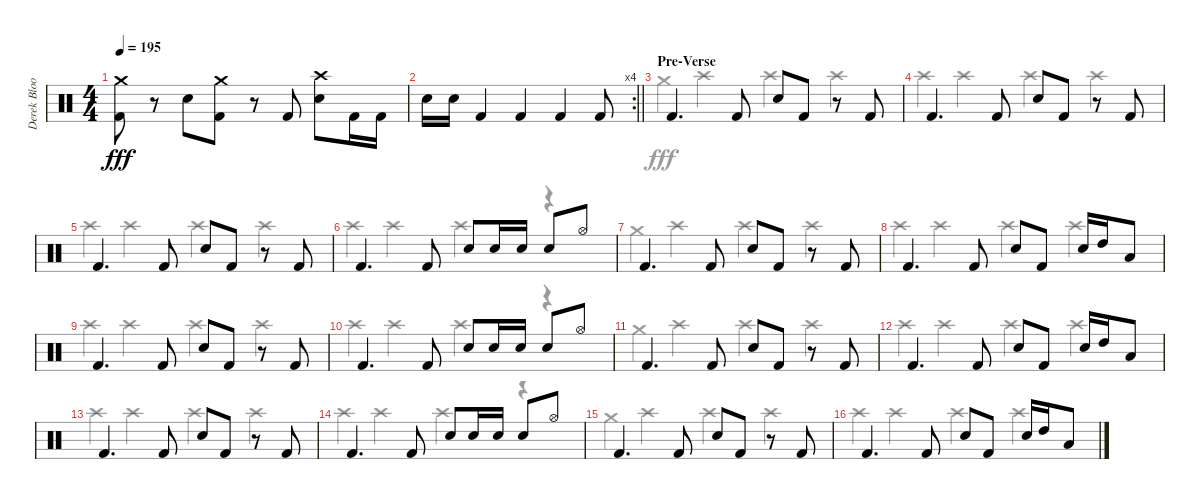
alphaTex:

\track ("Derek Bloom" "Derek Bloo") {instrument percussion}
\staff {score}
\articulation defaults
\voice
\ts (4 4)
\tempo 195
\clef neutral
\ks c
("Crash medium (hit)" "Kick (hit) 2").8{dy fff} r.8 "Electric Snare (hit)".8 ("Crash medium (hit)" "Kick (hit) 2").8 r.8 "Kick (hit) 2".8 ("Crash high (hit)" "Electric Snare (hit)").8 "Kick (hit) 2".16 "Kick (hit) 2".16 |
\rc 4
\barLineRight lightlight "Electric Snare (hit)".16 "Electric Snare (hit)".16 "Kick (hit) 2".4 "Kick (hit) 2".4 "Kick (hit) 2".4 "Kick (hit) 2".8
|
\section ("" "Pre-Verse")
"Kick (hit) 2".4{d} "Kick (hit) 2".8 "Electric Snare (hit)".8 "Kick (hit) 2".8 r.8 "Kick (hit) 2".8 |
"Kick (hit) 2".4{d} "Kick (hit) 2".8 "Electric Snare (hit)".8 "Kick (hit) 2".8 r.8 "Kick (hit) 2".8 |
"Kick (hit) 2".4{d} "Kick (hit) 2".8 "Electric Snare (hit)".8 "Kick (hit) 2".8 r.8 "Kick (hit) 2".8 |
"Kick (hit) 2".4{d} "Kick (hit) 2".8 "Electric Snare (hit)".8 "Electric Snare (hit)".16 "Electric Snare (hit)".16 "Electric Snare (hit)".8 "Hi-Hat (open)".8 |
"Kick (hit) 2".4{d} "Kick (hit) 2".8 "Electric Snare (hit)".8 "Kick (hit) 2".8 r.8 "Kick (hit) 2".8 |
"Kick (hit) 2".4{d} "Kick (hit) 2".8 "Electric Snare (hit)".8 "Kick (hit) 2".8 "Electric Snare (hit)".16 "High Tom (hit)".16 "Low Tom (hit)".8 |
"Kick (hit) 2".4{d} "Kick (hit) 2".8 "Electric Snare (hit)".8 "Kick (hit) 2".8 r.8 "Kick (hit) 2".8 |
"Kick (hit) 2".4{d} "Kick (hit) 2".8 "Electric Snare (hit)".8 "Electric Snare (hit)".16 "Electric Snare (hit)".16 "Electric Snare (hit)".8 "Hi-Hat (open)".8 |
"Kick (hit) 2".4{d} "Kick (hit) 2".8 "Electric Snare (hit)".8 "Kick (hit) 2".8 r.8 "Kick (hit) 2".8 |
"Kick (hit) 2".4{d} "Kick (hit) 2".8 "Electric Snare (hit)".8 "Kick (hit) 2".8 "Electric Snare (hit)".16 "High Tom (hit)".16 "Low Tom (hit)".8 |
"Kick (hit) 2".4{d} "Kick (hit) 2".8 "Electric Snare (hit)".8 "Kick (hit) 2".8 r.8 "Kick (hit) 2".8 |
"Kick (hit) 2".4{d} "Kick (hit) 2".8 "Electric Snare (hit)".8 "Electric Snare (hit)".16 "Electric Snare (hit)".16 "Electric Snare (hit)".8 "Hi-Hat (open)".8 |
"Kick (hit) 2".4{d} "Kick (hit) 2".8 "Electric Snare (hit)".8 "Kick (hit) 2".8 r.8 "Kick (hit) 2".8 |
"Kick (hit) 2".4{d} "Kick (hit) 2".8 "Electric Snare (hit)".8 "Kick (hit) 2".8 "Electric Snare (hit)".16 "High Tom (hit)".16 "Low Tom (hit)".8
\voice
\clef neutral
\ottava regular
\simile none
\ks c
|
\barLineRight lightlight
|
"Crash medium (hit)".4 "Crash high (hit)".4 "Crash high (hit)".4 "Crash high (hit)".4 |
"Crash high (hit)".4 "Crash high (hit)".4 "Crash high (hit)".4 "Crash high (hit)".4 |
"Crash high (hit)".4 "Crash high (hit)".4 "Crash high (hit)".4 "Crash high (hit)".4 |
"Crash high (hit)".4 "Crash high (hit)".4 "Crash high (hit)".4 r.4 |
"Crash medium (hit)".4 "Crash high (hit)".4 "Crash high (hit)".4 "Crash high (hit)".4 |
"Crash high (hit)".4 "Crash high (hit)".4 "Crash high (hit)".4 "Crash high (hit)".4 |
"Crash high (hit)".4 "Crash high (hit)".4 "Crash high (hit)".4 "Crash high (hit)".4 |
"Crash high (hit)".4 "Crash high (hit)".4 "Crash high (hit)".4 r.4 |
"Crash medium (hit)".4 "Crash high (hit)".4 "Crash high (hit)".4 "Crash high (hit)".4 |
"Crash high (hit)".4 "Crash high (hit)".4 "Crash high (hit)".4 "Crash high (hit)".4 |
"Crash high (hit)".4 "Crash high (hit)".4 "Crash high (hit)".4 "Crash high (hit)".4 |
"Crash high (hit)".4 "Crash high (hit)".4 "Crash high (hit)".4 r.4 |
"Crash medium (hit)".4 "Crash high (hit)".4 "Crash high (hit)".4 "Crash high (hit)".4 |
"Crash high (hit)".4 "Crash high (hit)".4 "Crash high (hit)".4 "Crash high (hit)".4
